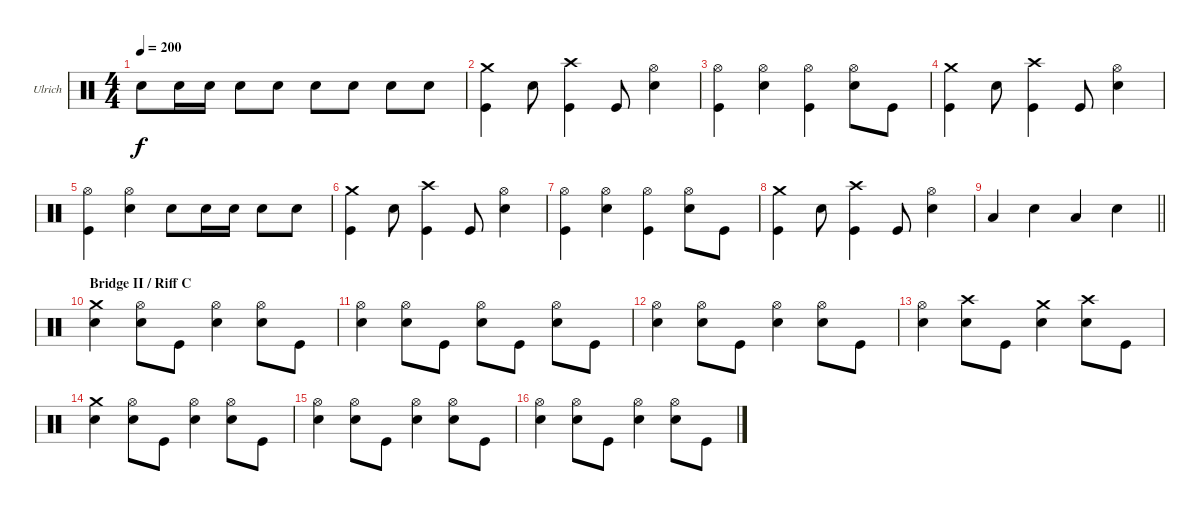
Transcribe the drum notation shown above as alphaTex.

\bracketExtendMode groupsimilarinstruments
\firstSystemTrackNameOrientation horizontal
\otherSystemsTrackNameOrientation horizontal
\track ("Drumkit" "Ulrich") {instrument percussion}
\staff {score}
\articulation defaults
\ts (4 4)
\tempo 200
\clef neutral
\ks c "Snare (hit) 2".8{dy f} "Snare (hit) 2".16 "Snare (hit) 2".16 "Snare (hit) 2".8 "Snare (hit) 2".8 "Snare (hit) 2".8 "Snare (hit) 2".8 "Snare (hit) 2".8 "Snare (hit) 2".8
|
("Crash medium (hit)" "Kick (hit)").4 "Snare (hit) 2".8 ("Crash high (hit)" "Kick (hit)").4 "Kick (hit)".8 ("Hi-Hat (open)" "Snare (hit) 2").4 |
("Hi-Hat (open)" "Kick (hit)").4 ("Hi-Hat (open)" "Snare (hit) 2").4 ("Hi-Hat (open)" "Kick (hit)").4 ("Hi-Hat (open)" "Snare (hit) 2").8 "Kick (hit)".8 |
("Crash medium (hit)" "Kick (hit)").4 "Snare (hit) 2".8 ("Crash high (hit)" "Kick (hit)").4 "Kick (hit)".8 ("Hi-Hat (open)" "Snare (hit) 2").4 |
("Hi-Hat (open)" "Kick (hit)").4 ("Hi-Hat (open)" "Snare (hit) 2").4 "Snare (hit) 2".8 "Snare (hit) 2".16 "Snare (hit) 2".16 "Snare (hit) 2".8 "Snare (hit) 2".8 |
("Crash medium (hit)" "Kick (hit)").4 "Snare (hit) 2".8 ("Crash high (hit)" "Kick (hit)").4 "Kick (hit)".8 ("Hi-Hat (open)" "Snare (hit) 2").4 |
("Hi-Hat (open)" "Kick (hit)").4 ("Hi-Hat (open)" "Snare (hit) 2").4 ("Hi-Hat (open)" "Kick (hit)").4 ("Hi-Hat (open)" "Snare (hit) 2").8 "Kick (hit)".8 |
("Crash medium (hit)" "Kick (hit)").4 "Snare (hit) 2".8 ("Crash high (hit)" "Kick (hit)").4 "Kick (hit)".8 ("Hi-Hat (open)" "Snare (hit) 2").4 |
\barLineRight lightlight "Low Tom (hit)".4 "Snare (hit) 2".4 "Low Tom (hit)".4 "Snare (hit) 2".4
|
\section ("" "Bridge II / Riff C")
("Crash medium (hit)" "Snare (hit) 2").4 ("Hi-Hat (open)" "Snare (hit) 2").8 "Kick (hit)".8 ("Hi-Hat (open)" "Snare (hit) 2").4 ("Hi-Hat (open)" "Snare (hit) 2").8 "Kick (hit)".8 |
("Hi-Hat (open)" "Snare (hit) 2").4 ("Hi-Hat (open)" "Snare (hit) 2").8 "Kick (hit)".8 ("Hi-Hat (open)" "Snare (hit) 2").8 "Kick (hit)".8 ("Hi-Hat (open)" "Snare (hit) 2").8 "Kick (hit)".8 |
("Hi-Hat (open)" "Snare (hit) 2").4 ("Hi-Hat (open)" "Snare (hit) 2").8 "Kick (hit)".8 ("Hi-Hat (open)" "Snare (hit) 2").4 ("Hi-Hat (open)" "Snare (hit) 2").8 "Kick (hit)".8 |
("Hi-Hat (open)" "Snare (hit) 2").4 ("Crash high (hit)" "Snare (hit) 2").8 "Kick (hit)".8 ("Crash medium (hit)" "Snare (hit) 2").4 ("Crash high (hit)" "Snare (hit) 2").8 "Kick (hit)".8 |
("Crash medium (hit)" "Snare (hit) 2").4 ("Hi-Hat (open)" "Snare (hit) 2").8 "Kick (hit)".8 ("Hi-Hat (open)" "Snare (hit) 2").4 ("Hi-Hat (open)" "Snare (hit) 2").8 "Kick (hit)".8 |
("Hi-Hat (open)" "Snare (hit) 2").4 ("Hi-Hat (open)" "Snare (hit) 2").8 "Kick (hit)".8 ("Hi-Hat (open)" "Snare (hit) 2").4 ("Hi-Hat (open)" "Snare (hit) 2").8 "Kick (hit)".8 |
("Hi-Hat (open)" "Snare (hit) 2").4 ("Hi-Hat (open)" "Snare (hit) 2").8 "Kick (hit)".8 ("Hi-Hat (open)" "Snare (hit) 2").4 ("Hi-Hat (open)" "Snare (hit) 2").8 "Kick (hit)".8
